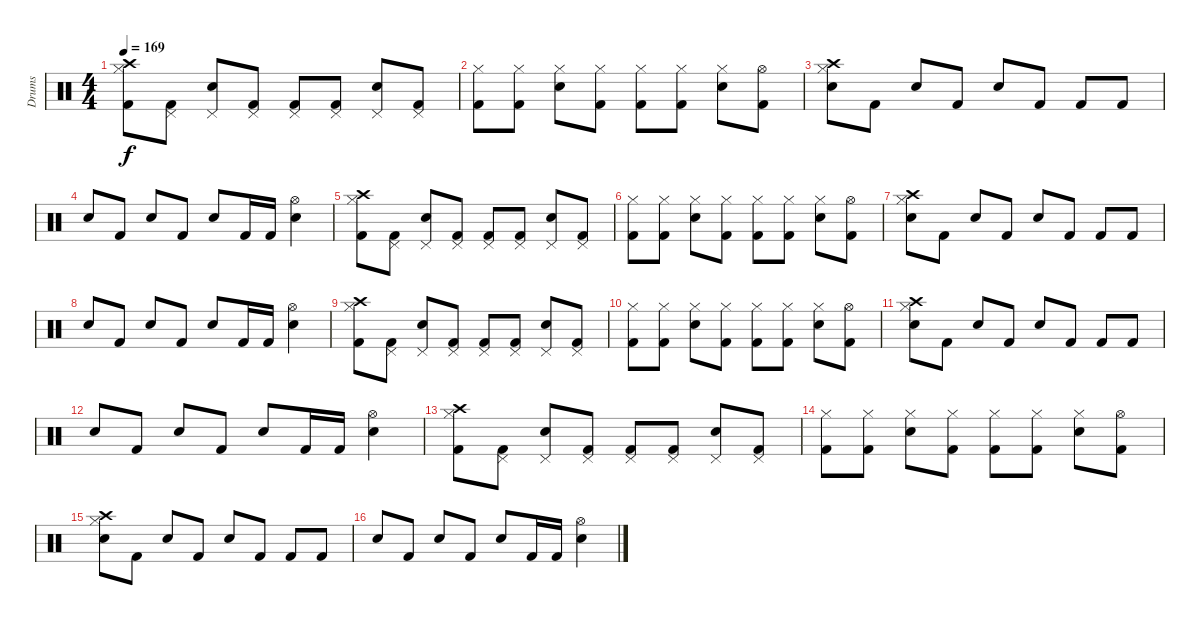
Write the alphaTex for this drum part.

\track ("Drums" "Drums") {instrument percussion}
\staff {score}
\articulation defaults
\ts (4 4)
\tempo 169
\clef neutral
\ks c
("Crash high (hit)" "Hi-Hat (closed)" "Kick (hit) 2").8{dy f} ("Pedal Hi-Hat (hit)" "Kick (hit) 2").8 ("Pedal Hi-Hat (hit)" "Snare (hit) 2").8 ("Pedal Hi-Hat (hit)" "Kick (hit) 2").8 ("Pedal Hi-Hat (hit)" "Kick (hit) 2").8 ("Pedal Hi-Hat (hit)" "Kick (hit) 2").8 ("Pedal Hi-Hat (hit)" "Snare (hit) 2").8 ("Pedal Hi-Hat (hit)" "Kick (hit) 2").8 |
("Hi-Hat (closed)" "Kick (hit) 2").8 ("Hi-Hat (closed)" "Kick (hit) 2").8 ("Hi-Hat (closed)" "Snare (hit) 2").8 ("Hi-Hat (closed)" "Kick (hit) 2").8 ("Hi-Hat (closed)" "Kick (hit) 2").8 ("Hi-Hat (closed)" "Kick (hit) 2").8 ("Hi-Hat (closed)" "Snare (hit) 2").8 ("Hi-Hat (open)" "Kick (hit) 2").8 |
("Crash high (hit)" "Hi-Hat (closed)" "Snare (hit) 2").8 "Kick (hit) 2".8 "Snare (hit) 2".8 "Kick (hit) 2".8 "Snare (hit) 2".8 "Kick (hit) 2".8 "Kick (hit) 2".8 "Kick (hit) 2".8 |
"Snare (hit) 2".8 "Kick (hit) 2".8 "Snare (hit) 2".8 "Kick (hit) 2".8 "Snare (hit) 2".8 "Kick (hit) 2".16 "Kick (hit) 2".16 ("Hi-Hat (open)" "Snare (hit) 2").4 |
("Crash high (hit)" "Hi-Hat (closed)" "Kick (hit) 2").8 ("Pedal Hi-Hat (hit)" "Kick (hit) 2").8 ("Pedal Hi-Hat (hit)" "Snare (hit) 2").8 ("Pedal Hi-Hat (hit)" "Kick (hit) 2").8 ("Pedal Hi-Hat (hit)" "Kick (hit) 2").8 ("Pedal Hi-Hat (hit)" "Kick (hit) 2").8 ("Pedal Hi-Hat (hit)" "Snare (hit) 2").8 ("Pedal Hi-Hat (hit)" "Kick (hit) 2").8 |
("Hi-Hat (closed)" "Kick (hit) 2").8 ("Hi-Hat (closed)" "Kick (hit) 2").8 ("Hi-Hat (closed)" "Snare (hit) 2").8 ("Hi-Hat (closed)" "Kick (hit) 2").8 ("Hi-Hat (closed)" "Kick (hit) 2").8 ("Hi-Hat (closed)" "Kick (hit) 2").8 ("Hi-Hat (closed)" "Snare (hit) 2").8 ("Hi-Hat (open)" "Kick (hit) 2").8 |
("Crash high (hit)" "Hi-Hat (closed)" "Snare (hit) 2").8 "Kick (hit) 2".8 "Snare (hit) 2".8 "Kick (hit) 2".8 "Snare (hit) 2".8 "Kick (hit) 2".8 "Kick (hit) 2".8 "Kick (hit) 2".8 |
"Snare (hit) 2".8 "Kick (hit) 2".8 "Snare (hit) 2".8 "Kick (hit) 2".8 "Snare (hit) 2".8 "Kick (hit) 2".16 "Kick (hit) 2".16 ("Hi-Hat (open)" "Snare (hit) 2").4 |
("Crash high (hit)" "Hi-Hat (closed)" "Kick (hit) 2").8 ("Pedal Hi-Hat (hit)" "Kick (hit) 2").8 ("Pedal Hi-Hat (hit)" "Snare (hit) 2").8 ("Pedal Hi-Hat (hit)" "Kick (hit) 2").8 ("Pedal Hi-Hat (hit)" "Kick (hit) 2").8 ("Pedal Hi-Hat (hit)" "Kick (hit) 2").8 ("Pedal Hi-Hat (hit)" "Snare (hit) 2").8 ("Pedal Hi-Hat (hit)" "Kick (hit) 2").8 |
("Hi-Hat (closed)" "Kick (hit) 2").8 ("Hi-Hat (closed)" "Kick (hit) 2").8 ("Hi-Hat (closed)" "Snare (hit) 2").8 ("Hi-Hat (closed)" "Kick (hit) 2").8 ("Hi-Hat (closed)" "Kick (hit) 2").8 ("Hi-Hat (closed)" "Kick (hit) 2").8 ("Hi-Hat (closed)" "Snare (hit) 2").8 ("Hi-Hat (open)" "Kick (hit) 2").8 |
("Crash high (hit)" "Hi-Hat (closed)" "Snare (hit) 2").8 "Kick (hit) 2".8 "Snare (hit) 2".8 "Kick (hit) 2".8 "Snare (hit) 2".8 "Kick (hit) 2".8 "Kick (hit) 2".8 "Kick (hit) 2".8 |
"Snare (hit) 2".8 "Kick (hit) 2".8 "Snare (hit) 2".8 "Kick (hit) 2".8 "Snare (hit) 2".8 "Kick (hit) 2".16 "Kick (hit) 2".16 ("Hi-Hat (open)" "Snare (hit) 2").4 |
("Crash high (hit)" "Hi-Hat (closed)" "Kick (hit) 2").8 ("Pedal Hi-Hat (hit)" "Kick (hit) 2").8 ("Pedal Hi-Hat (hit)" "Snare (hit) 2").8 ("Pedal Hi-Hat (hit)" "Kick (hit) 2").8 ("Pedal Hi-Hat (hit)" "Kick (hit) 2").8 ("Pedal Hi-Hat (hit)" "Kick (hit) 2").8 ("Pedal Hi-Hat (hit)" "Snare (hit) 2").8 ("Pedal Hi-Hat (hit)" "Kick (hit) 2").8 |
("Hi-Hat (closed)" "Kick (hit) 2").8 ("Hi-Hat (closed)" "Kick (hit) 2").8 ("Hi-Hat (closed)" "Snare (hit) 2").8 ("Hi-Hat (closed)" "Kick (hit) 2").8 ("Hi-Hat (closed)" "Kick (hit) 2").8 ("Hi-Hat (closed)" "Kick (hit) 2").8 ("Hi-Hat (closed)" "Snare (hit) 2").8 ("Hi-Hat (open)" "Kick (hit) 2").8 |
("Crash high (hit)" "Hi-Hat (closed)" "Snare (hit) 2").8 "Kick (hit) 2".8 "Snare (hit) 2".8 "Kick (hit) 2".8 "Snare (hit) 2".8 "Kick (hit) 2".8 "Kick (hit) 2".8 "Kick (hit) 2".8 |
"Snare (hit) 2".8 "Kick (hit) 2".8 "Snare (hit) 2".8 "Kick (hit) 2".8 "Snare (hit) 2".8 "Kick (hit) 2".16 "Kick (hit) 2".16 ("Hi-Hat (open)" "Snare (hit) 2").4
